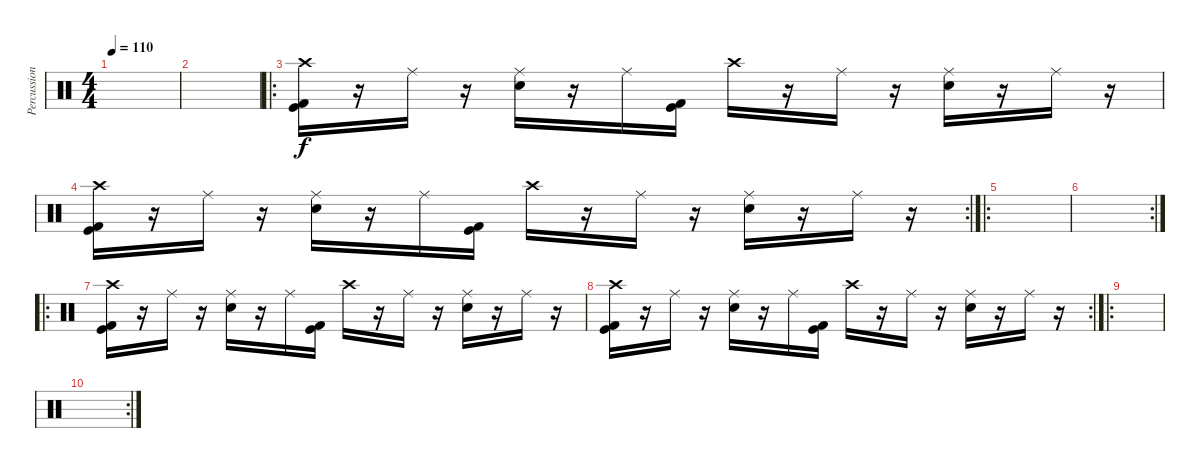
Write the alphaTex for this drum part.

\track ("Percussions" "Percussion") {instrument percussion}
\staff {score}
\articulation defaults
\ts (4 4)
\tempo 110
\clef neutral
\ks c
|
|
\ro
("Crash high (hit)" "Kick (hit) 2" "Kick (hit)").16 r.16 "Ride (middle)".16 r.16 ("Ride (middle)" "Electric Snare (hit)").16 r.16 "Ride (middle)".16 ("Kick (hit)" "Kick (hit) 2").16 "Crash high (hit)".16 r.16 "Ride (middle)".16 r.16 ("Ride (middle)" "Electric Snare (hit)").16 r.16 "Ride (middle)".16 r.16 |
\rc 2
("Crash high (hit)" "Kick (hit) 2" "Kick (hit)").16 r.16 "Ride (middle)".16 r.16 ("Ride (middle)" "Electric Snare (hit)").16 r.16 "Ride (middle)".16 ("Kick (hit)" "Kick (hit) 2").16 "Crash high (hit)".16 r.16 "Ride (middle)".16 r.16 ("Ride (middle)" "Electric Snare (hit)").16 r.16 "Ride (middle)".16 r.16 |
\ro
|
\rc 2
|
\ro
("Crash high (hit)" "Kick (hit) 2" "Kick (hit)").16 r.16 "Ride (middle)".16 r.16 ("Ride (middle)" "Electric Snare (hit)").16 r.16 "Ride (middle)".16 ("Kick (hit)" "Kick (hit) 2").16 "Crash high (hit)".16 r.16 "Ride (middle)".16 r.16 ("Ride (middle)" "Electric Snare (hit)").16 r.16 "Ride (middle)".16 r.16 |
\rc 2
("Crash high (hit)" "Kick (hit) 2" "Kick (hit)").16 r.16 "Ride (middle)".16 r.16 ("Ride (middle)" "Electric Snare (hit)").16 r.16 "Ride (middle)".16 ("Kick (hit)" "Kick (hit) 2").16 "Crash high (hit)".16 r.16 "Ride (middle)".16 r.16 ("Ride (middle)" "Electric Snare (hit)").16 r.16 "Ride (middle)".16 r.16 |
\ro
|
\rc 2
